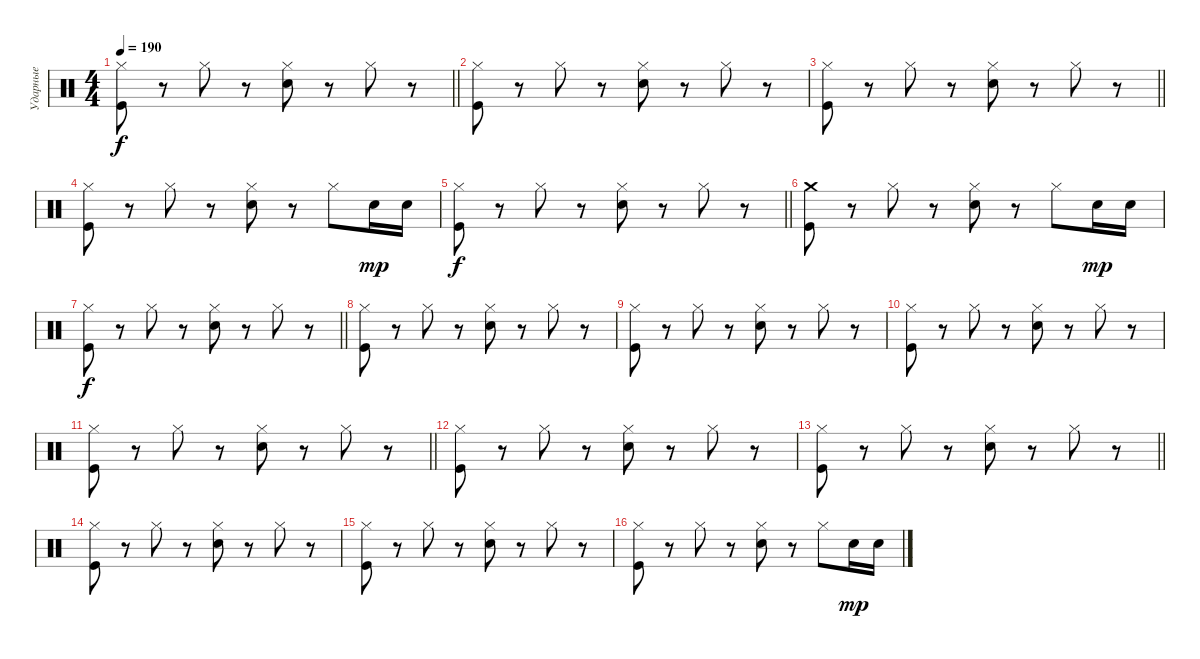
\track ("Ударные" "Ударные") {instrument percussion}
\staff {score}
\articulation defaults
\ts (4 4)
\tempo 190
\clef neutral
\barLineRight lightlight
\ks c
("Hi-Hat (closed)" "Kick (hit)").8{dy f} r.8 "Hi-Hat (closed)".8 r.8 ("Hi-Hat (closed)" "Electric Snare (hit)").8 r.8 "Hi-Hat (closed)".8 r.8 |
("Hi-Hat (closed)" "Kick (hit)").8 r.8 "Hi-Hat (closed)".8 r.8 ("Hi-Hat (closed)" "Electric Snare (hit)").8 r.8 "Hi-Hat (closed)".8 r.8 |
\barLineRight lightlight
("Hi-Hat (closed)" "Kick (hit)").8 r.8 "Hi-Hat (closed)".8 r.8 ("Hi-Hat (closed)" "Electric Snare (hit)").8 r.8 "Hi-Hat (closed)".8 r.8 |
("Hi-Hat (closed)" "Kick (hit)").8 r.8 "Hi-Hat (closed)".8 r.8 ("Hi-Hat (closed)" "Electric Snare (hit)").8 r.8 "Hi-Hat (closed)".8 "Electric Snare (hit)".16{dy mp} "Electric Snare (hit)".16 |
\barLineRight lightlight
("Hi-Hat (closed)" "Kick (hit)").8{dy f} r.8 "Hi-Hat (closed)".8 r.8 ("Hi-Hat (closed)" "Electric Snare (hit)").8 r.8 "Hi-Hat (closed)".8 r.8 |
("Crash medium (hit)" "Kick (hit)").8 r.8 "Hi-Hat (closed)".8 r.8 ("Hi-Hat (closed)" "Electric Snare (hit)").8 r.8 "Hi-Hat (closed)".8 "Electric Snare (hit)".16{dy mp} "Electric Snare (hit)".16 |
\barLineRight lightlight
("Hi-Hat (closed)" "Kick (hit)").8{dy f} r.8 "Hi-Hat (closed)".8 r.8 ("Hi-Hat (closed)" "Electric Snare (hit)").8 r.8 "Hi-Hat (closed)".8 r.8 |
("Hi-Hat (closed)" "Kick (hit)").8 r.8 "Hi-Hat (closed)".8 r.8 ("Hi-Hat (closed)" "Electric Snare (hit)").8 r.8 "Hi-Hat (closed)".8 r.8 |
("Hi-Hat (closed)" "Kick (hit)").8 r.8 "Hi-Hat (closed)".8 r.8 ("Hi-Hat (closed)" "Electric Snare (hit)").8 r.8 "Hi-Hat (closed)".8 r.8 |
("Hi-Hat (closed)" "Kick (hit)").8 r.8 "Hi-Hat (closed)".8 r.8 ("Hi-Hat (closed)" "Electric Snare (hit)").8 r.8 "Hi-Hat (closed)".8 r.8 |
\barLineRight lightlight
("Hi-Hat (closed)" "Kick (hit)").8 r.8 "Hi-Hat (closed)".8 r.8 ("Hi-Hat (closed)" "Electric Snare (hit)").8 r.8 "Hi-Hat (closed)".8 r.8 |
("Hi-Hat (closed)" "Kick (hit)").8 r.8 "Hi-Hat (closed)".8 r.8 ("Hi-Hat (closed)" "Electric Snare (hit)").8 r.8 "Hi-Hat (closed)".8 r.8 |
\barLineRight lightlight
("Hi-Hat (closed)" "Kick (hit)").8 r.8 "Hi-Hat (closed)".8 r.8 ("Hi-Hat (closed)" "Electric Snare (hit)").8 r.8 "Hi-Hat (closed)".8 r.8 |
("Hi-Hat (closed)" "Kick (hit)").8 r.8 "Hi-Hat (closed)".8 r.8 ("Hi-Hat (closed)" "Electric Snare (hit)").8 r.8 "Hi-Hat (closed)".8 r.8 |
("Hi-Hat (closed)" "Kick (hit)").8 r.8 "Hi-Hat (closed)".8 r.8 ("Hi-Hat (closed)" "Electric Snare (hit)").8 r.8 "Hi-Hat (closed)".8 r.8 |
("Hi-Hat (closed)" "Kick (hit)").8 r.8 "Hi-Hat (closed)".8 r.8 ("Hi-Hat (closed)" "Electric Snare (hit)").8 r.8 "Hi-Hat (closed)".8 "Electric Snare (hit)".16{dy mp} "Electric Snare (hit)".16
